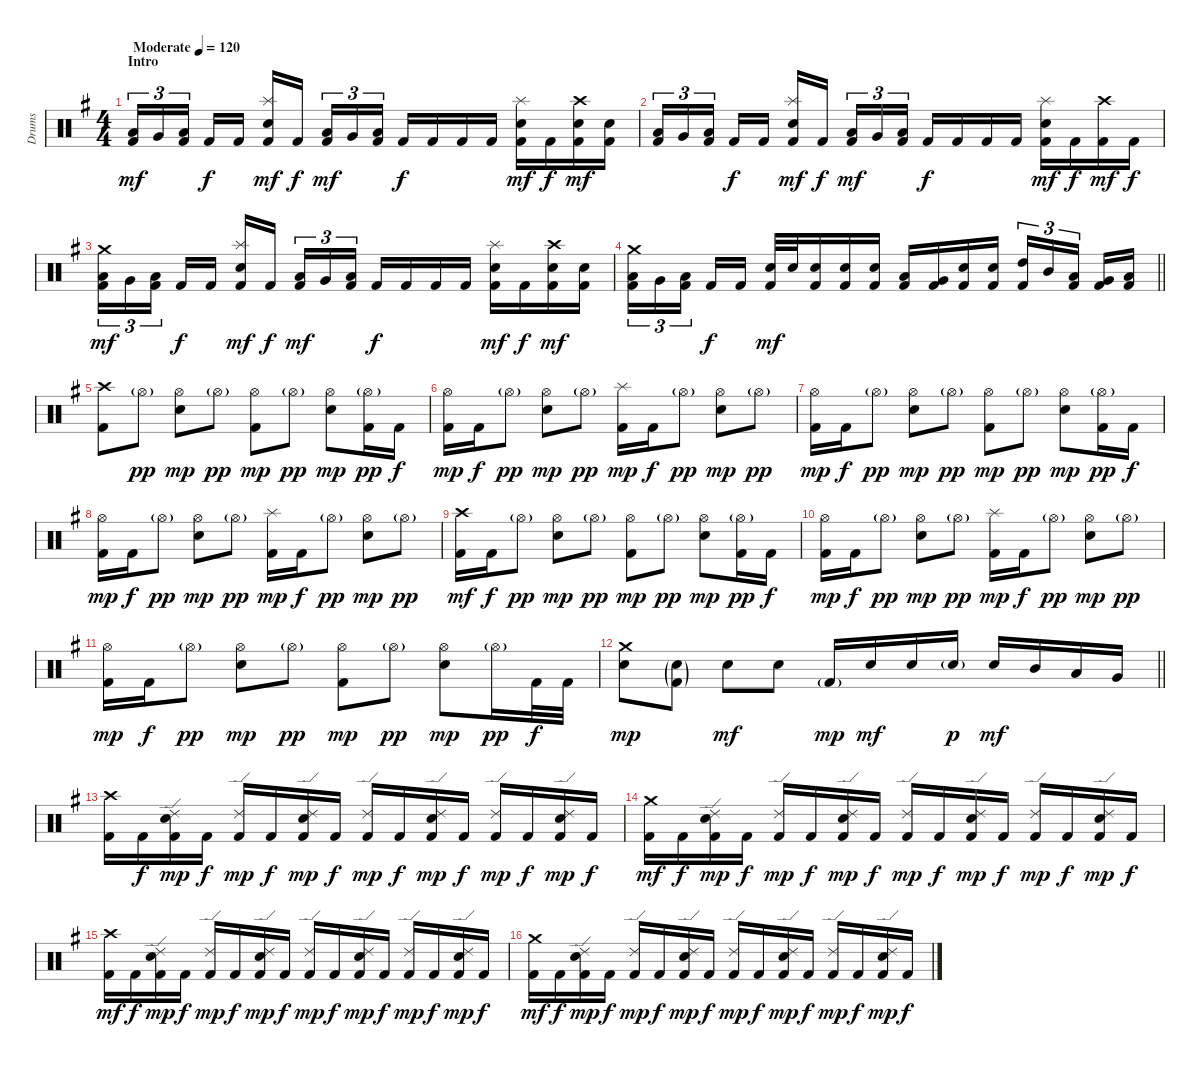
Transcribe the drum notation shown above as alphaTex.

\track ("Drums" "Drums") {instrument percussion}
\staff {score}
\articulation defaults
\ts (4 4)
\section ("" "Intro")
\tempo (120 "Moderate")
\clef neutral
\ks eminor
("Low Tom (hit)" "Kick (hit) 2").16{tu (3 2) dy mf} "Very Low Tom (hit)".16{tu (3 2)} ("Low Floor Tom (hit)" "Kick (hit) 2").16{tu (3 2) beam splitsecondary} "Kick (hit) 2".16{dy f} "Kick (hit) 2".16 ("Splash (hit)" "Electric Snare (hit)" "Kick (hit) 2").16{dy mf} "Kick (hit) 2".16{dy f beam splitsecondary} ("Low Tom (hit)" "Kick (hit) 2").16{tu (3 2) dy mf} "Very Low Tom (hit)".16{tu (3 2)} ("Low Floor Tom (hit)" "Kick (hit) 2").16{tu (3 2)} "Kick (hit) 2".16{dy f} "Kick (hit) 2".16 "Kick (hit) 2".16 "Kick (hit) 2".16 ("Splash (hit)" "Electric Snare (hit)" "Kick (hit) 2").16{dy mf} "Kick (hit) 2".16{dy f} ("Crash high (hit)" "Electric Snare (hit)" "Kick (hit) 2").16{dy mf} ("Electric Snare (hit)" "Kick (hit) 2").16 |
("Low Tom (hit)" "Kick (hit) 2").16{tu (3 2)} "Very Low Tom (hit)".16{tu (3 2)} ("Low Floor Tom (hit)" "Kick (hit) 2").16{tu (3 2) beam splitsecondary} "Kick (hit) 2".16{dy f} "Kick (hit) 2".16 ("Splash (hit)" "Electric Snare (hit)" "Kick (hit) 2").16{dy mf} "Kick (hit) 2".16{dy f beam splitsecondary} ("Low Tom (hit)" "Kick (hit) 2").16{tu (3 2) dy mf} "Very Low Tom (hit)".16{tu (3 2)} ("Low Floor Tom (hit)" "Kick (hit) 2").16{tu (3 2)} "Kick (hit) 2".16{dy f} "Kick (hit) 2".16 "Kick (hit) 2".16 "Kick (hit) 2".16 ("Splash (hit)" "Electric Snare (hit)" "Kick (hit) 2").16{dy mf} "Kick (hit) 2".16{dy f} ("Crash high (hit)" "Kick (hit) 2").16{dy mf} "Kick (hit) 2".16{dy f} |
("Crash medium (hit)" "Low Tom (hit)" "Kick (hit) 2").16{tu (3 2) dy mf} "Very Low Tom (hit)".16{tu (3 2)} ("Low Floor Tom (hit)" "Kick (hit) 2").16{tu (3 2) beam splitsecondary} "Kick (hit) 2".16{dy f} "Kick (hit) 2".16 ("Splash (hit)" "Electric Snare (hit)" "Kick (hit) 2").16{dy mf} "Kick (hit) 2".16{dy f beam splitsecondary} ("Low Tom (hit)" "Kick (hit) 2").16{tu (3 2) dy mf} "Very Low Tom (hit)".16{tu (3 2)} ("Low Floor Tom (hit)" "Kick (hit) 2").16{tu (3 2)} "Kick (hit) 2".16{dy f} "Kick (hit) 2".16 "Kick (hit) 2".16 "Kick (hit) 2".16 ("Splash (hit)" "Electric Snare (hit)" "Kick (hit) 2").16{dy mf} "Kick (hit) 2".16{dy f} ("Crash high (hit)" "Electric Snare (hit)" "Kick (hit) 2").16{dy mf} ("Electric Snare (hit)" "Kick (hit) 2").16 |
\barLineRight lightlight
("Crash medium (hit)" "Low Tom (hit)" "Kick (hit) 2").16{tu (3 2)} "Very Low Tom (hit)".16{tu (3 2)} ("Low Floor Tom (hit)" "Kick (hit) 2").16{tu (3 2) beam splitsecondary} "Kick (hit) 2".16{dy f} "Kick (hit) 2".16 ("Electric Snare (hit)" "Kick (hit) 2").32{dy mf} "Electric Snare (hit)".32 ("Electric Snare (hit)" "Kick (hit) 2").16 ("Electric Snare (hit)" "Kick (hit) 2").16 ("Electric Snare (hit)" "Kick (hit) 2").16 ("Low Tom (hit)" "Kick (hit) 2").16 ("Very Low Tom (hit)" "Kick (hit) 2").16 ("Electric Snare (hit)" "Kick (hit) 2").16 ("Electric Snare (hit)" "Kick (hit) 2").16 ("High Tom (hit)" "Kick (hit) 2").16{tu (3 2)} "Mid Tom (hit)".16{tu (3 2)} ("Low Tom (hit)" "Kick (hit) 2").16{tu (3 2) beam splitsecondary} ("Very Low Tom (hit)" "Kick (hit) 2").16 ("Low Floor Tom (hit)" "Kick (hit) 2").16 |
\section ("" "")
("Crash high (hit)" "Kick (hit) 2").8 "Hi-Hat (open)"{g}.8{dy pp} ("Hi-Hat (open)" "Electric Snare (hit)").8{dy mp} "Hi-Hat (open)"{g}.8{dy pp} ("Hi-Hat (open)" "Kick (hit) 2").8{dy mp} "Hi-Hat (open)"{g}.8{dy pp} ("Hi-Hat (open)" "Electric Snare (hit)").8{dy mp} ("Hi-Hat (open)"{g} "Kick (hit) 2").16{dy pp} "Kick (hit) 2".16{dy f} |
("Hi-Hat (open)" "Kick (hit) 2").16{dy mp} "Kick (hit) 2".16{dy f} "Hi-Hat (open)"{g}.8{dy pp} ("Hi-Hat (open)" "Electric Snare (hit)").8{dy mp} "Hi-Hat (open)"{g}.8{dy pp} ("Splash (hit)" "Kick (hit) 2").16{dy mp} "Kick (hit) 2".16{dy f} "Hi-Hat (open)"{g}.8{dy pp} ("Hi-Hat (open)" "Electric Snare (hit)").8{dy mp} "Hi-Hat (open)"{g}.8{dy pp} |
("Hi-Hat (open)" "Kick (hit) 2").16{dy mp} "Kick (hit) 2".16{dy f} "Hi-Hat (open)"{g}.8{dy pp} ("Hi-Hat (open)" "Electric Snare (hit)").8{dy mp} "Hi-Hat (open)"{g}.8{dy pp} ("Hi-Hat (open)" "Kick (hit) 2").8{dy mp} "Hi-Hat (open)"{g}.8{dy pp} ("Hi-Hat (open)" "Electric Snare (hit)").8{dy mp} ("Hi-Hat (open)"{g} "Kick (hit) 2").16{dy pp} "Kick (hit) 2".16{dy f} |
("Hi-Hat (open)" "Kick (hit) 2").16{dy mp} "Kick (hit) 2".16{dy f} "Hi-Hat (open)"{g}.8{dy pp} ("Hi-Hat (open)" "Electric Snare (hit)").8{dy mp} "Hi-Hat (open)"{g}.8{dy pp} ("Splash (hit)" "Kick (hit) 2").16{dy mp} "Kick (hit) 2".16{dy f} "Hi-Hat (open)"{g}.8{dy pp} ("Hi-Hat (open)" "Electric Snare (hit)").8{dy mp} "Hi-Hat (open)"{g}.8{dy pp} |
("Crash high (hit)" "Kick (hit) 2").16{dy mf} "Kick (hit) 2".16{dy f} "Hi-Hat (open)"{g}.8{dy pp} ("Hi-Hat (open)" "Electric Snare (hit)").8{dy mp} "Hi-Hat (open)"{g}.8{dy pp} ("Hi-Hat (open)" "Kick (hit) 2").8{dy mp} "Hi-Hat (open)"{g}.8{dy pp} ("Hi-Hat (open)" "Electric Snare (hit)").8{dy mp} ("Hi-Hat (open)"{g} "Kick (hit) 2").16{dy pp} "Kick (hit) 2".16{dy f} |
("Hi-Hat (open)" "Kick (hit) 2").16{dy mp} "Kick (hit) 2".16{dy f} "Hi-Hat (open)"{g}.8{dy pp} ("Hi-Hat (open)" "Electric Snare (hit)").8{dy mp} "Hi-Hat (open)"{g}.8{dy pp} ("Splash (hit)" "Kick (hit) 2").16{dy mp} "Kick (hit) 2".16{dy f} "Hi-Hat (open)"{g}.8{dy pp} ("Hi-Hat (open)" "Electric Snare (hit)").8{dy mp} "Hi-Hat (open)"{g}.8{dy pp} |
("Hi-Hat (open)" "Kick (hit) 2").16{dy mp} "Kick (hit) 2".16{dy f} "Hi-Hat (open)"{g}.8{dy pp} ("Hi-Hat (open)" "Electric Snare (hit)").8{dy mp} "Hi-Hat (open)"{g}.8{dy pp} ("Hi-Hat (open)" "Kick (hit) 2").8{dy mp} "Hi-Hat (open)"{g}.8{dy pp} ("Hi-Hat (open)" "Electric Snare (hit)").8{dy mp} "Hi-Hat (open)"{g}.16{dy pp} "Kick (hit) 2".32{dy f} "Kick (hit) 2".32 |
\barLineRight lightlight
("Crash medium (hit)" "Electric Snare (hit)").8{dy mp} ("Electric Snare (hit)"{g} "Kick (hit) 2"{g}).8 "Electric Snare (hit)".8{dy mf} "Electric Snare (hit)".8 "Kick (hit) 2"{g}.16{dy mp} "Electric Snare (hit)".16{dy mf} "Electric Snare (hit)".16 "Electric Snare (hit)"{g}.16{dy p} "Electric Snare (hit)".16{dy mf} "Mid Tom (hit)".16 "Low Tom (hit)".16 "Very Low Tom (hit)".16 |
\section ("" "")
("Crash high (hit)" "Kick (hit) 2").16 "Kick (hit) 2".16{dy f} ("Ride (edge) 2" "Electric Snare (hit)" "Kick (hit) 2").16{dy mp} "Kick (hit) 2".16{dy f} ("Ride (edge) 2" "Kick (hit) 2").16{dy mp} "Kick (hit) 2".16{dy f} ("Ride (edge) 2" "Electric Snare (hit)" "Kick (hit) 2").16{dy mp} "Kick (hit) 2".16{dy f} ("Ride (edge) 2" "Kick (hit) 2").16{dy mp} "Kick (hit) 2".16{dy f} ("Ride (edge) 2" "Electric Snare (hit)" "Kick (hit) 2").16{dy mp} "Kick (hit) 2".16{dy f} ("Ride (edge) 2" "Kick (hit) 2").16{dy mp} "Kick (hit) 2".16{dy f} ("Ride (edge) 2" "Electric Snare (hit)" "Kick (hit) 2").16{dy mp} "Kick (hit) 2".16{dy f} |
("Crash medium (hit)" "Kick (hit) 2").16{dy mf} "Kick (hit) 2".16{dy f} ("Ride (edge) 2" "Electric Snare (hit)" "Kick (hit) 2").16{dy mp} "Kick (hit) 2".16{dy f} ("Ride (edge) 2" "Kick (hit) 2").16{dy mp} "Kick (hit) 2".16{dy f} ("Ride (edge) 2" "Electric Snare (hit)" "Kick (hit) 2").16{dy mp} "Kick (hit) 2".16{dy f} ("Ride (edge) 2" "Kick (hit) 2").16{dy mp} "Kick (hit) 2".16{dy f} ("Ride (edge) 2" "Electric Snare (hit)" "Kick (hit) 2").16{dy mp} "Kick (hit) 2".16{dy f} ("Ride (edge) 2" "Kick (hit) 2").16{dy mp} "Kick (hit) 2".16{dy f} ("Ride (edge) 2" "Electric Snare (hit)" "Kick (hit) 2").16{dy mp} "Kick (hit) 2".16{dy f} |
("Crash high (hit)" "Kick (hit) 2").16{dy mf} "Kick (hit) 2".16{dy f} ("Ride (edge) 2" "Electric Snare (hit)" "Kick (hit) 2").16{dy mp} "Kick (hit) 2".16{dy f} ("Ride (edge) 2" "Kick (hit) 2").16{dy mp} "Kick (hit) 2".16{dy f} ("Ride (edge) 2" "Electric Snare (hit)" "Kick (hit) 2").16{dy mp} "Kick (hit) 2".16{dy f} ("Ride (edge) 2" "Kick (hit) 2").16{dy mp} "Kick (hit) 2".16{dy f} ("Ride (edge) 2" "Electric Snare (hit)" "Kick (hit) 2").16{dy mp} "Kick (hit) 2".16{dy f} ("Ride (edge) 2" "Kick (hit) 2").16{dy mp} "Kick (hit) 2".16{dy f} ("Ride (edge) 2" "Electric Snare (hit)" "Kick (hit) 2").16{dy mp} "Kick (hit) 2".16{dy f} |
("Crash medium (hit)" "Kick (hit) 2").16{dy mf} "Kick (hit) 2".16{dy f} ("Ride (edge) 2" "Electric Snare (hit)" "Kick (hit) 2").16{dy mp} "Kick (hit) 2".16{dy f} ("Ride (edge) 2" "Kick (hit) 2").16{dy mp} "Kick (hit) 2".16{dy f} ("Ride (edge) 2" "Electric Snare (hit)" "Kick (hit) 2").16{dy mp} "Kick (hit) 2".16{dy f} ("Ride (edge) 2" "Kick (hit) 2").16{dy mp} "Kick (hit) 2".16{dy f} ("Ride (edge) 2" "Electric Snare (hit)" "Kick (hit) 2").16{dy mp} "Kick (hit) 2".16{dy f} ("Ride (edge) 2" "Kick (hit) 2").16{dy mp} "Kick (hit) 2".16{dy f} ("Ride (edge) 2" "Electric Snare (hit)" "Kick (hit) 2").16{dy mp} "Kick (hit) 2".16{dy f}
